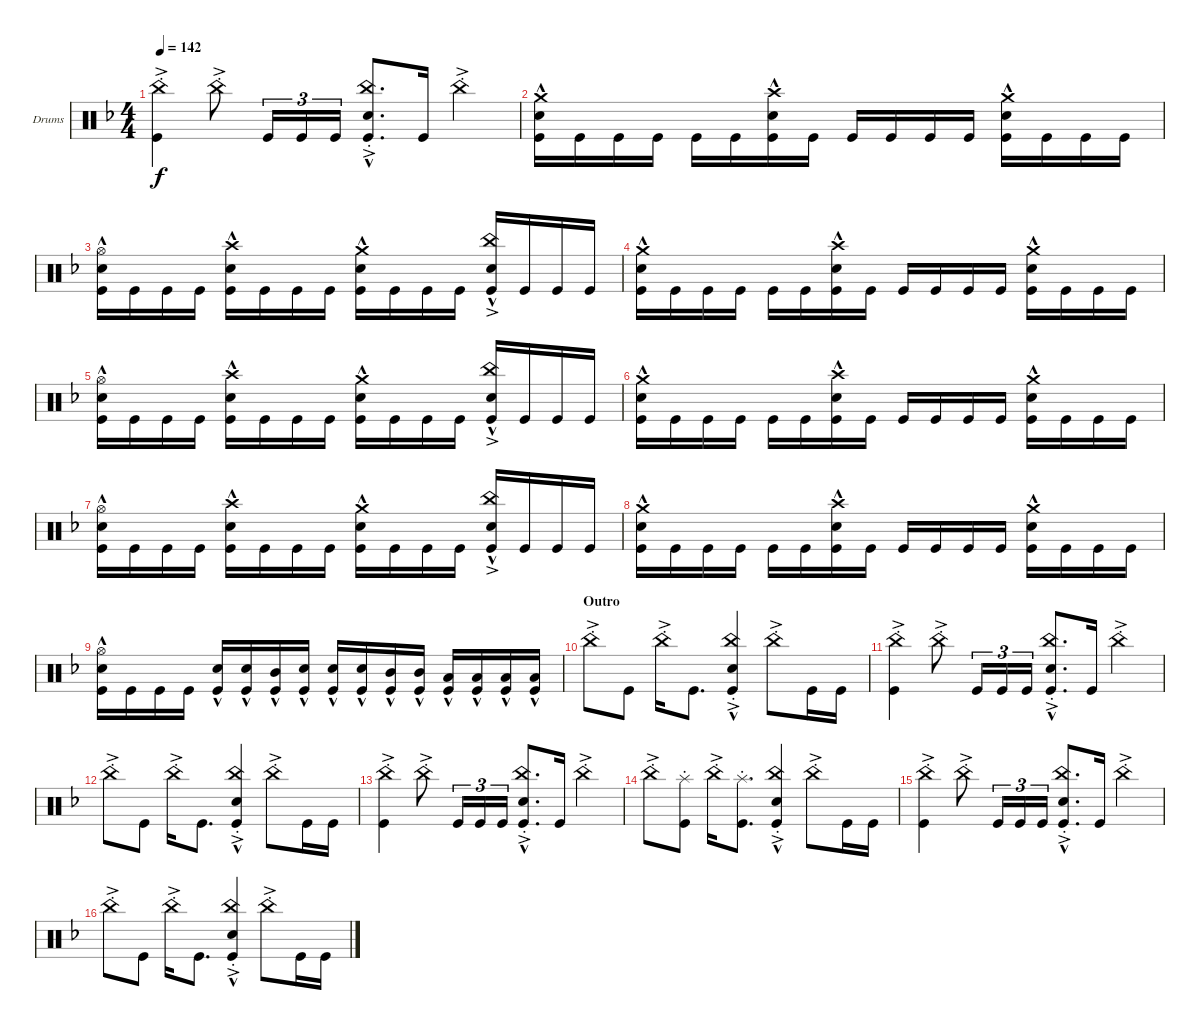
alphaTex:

\bracketExtendMode groupsimilarinstruments
\firstSystemTrackNameOrientation horizontal
\otherSystemsTrackNameOrientation horizontal
\track ("Drumkit" "Drums") {instrument percussion}
\staff {score}
\articulation defaults
\ts (4 4)
\tempo 142
\clef neutral
\scale
0.333333
\ks dminor
("Kick (hit)" "China (hit)"{ac st}).4{dy f} "China (hit)"{ac st}.8 "Kick (hit)".16{tu (3 2)} "Kick (hit)".16{tu (3 2)} "Kick (hit)".16{tu (3 2)} ("Kick (hit)" "China (hit)"{ac st} "Snare (hit) 2"{hac}).8{d} "Kick (hit)".16 "China (hit)"{ac st}.4 |
\scale
0.333333 ("Kick (hit)" "Snare (hit) 2"{hac} "Crash medium (hit)").16 "Kick (hit)".16 "Kick (hit)".16 "Kick (hit)".16 "Kick (hit)".16 "Kick (hit)".16 ("Kick (hit)" "Snare (hit) 2"{hac} "Crash high (hit)").16 "Kick (hit)".16 "Kick (hit)".16 "Kick (hit)".16 "Kick (hit)".16 "Kick (hit)".16 ("Kick (hit)" "Snare (hit) 2"{hac} "Crash medium (hit)").16 "Kick (hit)".16 "Kick (hit)".16 "Kick (hit)".16 |
\scale
0.333333 ("Kick (hit)" "Snare (hit) 2"{hac} "Hi-Hat (open)").16 "Kick (hit)".16 "Kick (hit)".16 "Kick (hit)".16 ("Kick (hit)" "Snare (hit) 2"{hac} "Crash high (hit)").16 "Kick (hit)".16 "Kick (hit)".16 "Kick (hit)".16 ("Kick (hit)" "Snare (hit) 2"{hac} "Crash medium (hit)").16 "Kick (hit)".16 "Kick (hit)".16 "Kick (hit)".16 ("Kick (hit)" "Snare (hit) 2"{hac} "China (hit)"{ac}).16 "Kick (hit)".16 "Kick (hit)".16 "Kick (hit)".16 |
\scale
0.333333 ("Kick (hit)" "Snare (hit) 2"{hac} "Crash medium (hit)").16 "Kick (hit)".16 "Kick (hit)".16 "Kick (hit)".16 "Kick (hit)".16 "Kick (hit)".16 ("Kick (hit)" "Snare (hit) 2"{hac} "Crash high (hit)").16 "Kick (hit)".16 "Kick (hit)".16 "Kick (hit)".16 "Kick (hit)".16 "Kick (hit)".16 ("Kick (hit)" "Snare (hit) 2"{hac} "Crash medium (hit)").16 "Kick (hit)".16 "Kick (hit)".16 "Kick (hit)".16 |
\scale
0.333333 ("Kick (hit)" "Snare (hit) 2"{hac} "Hi-Hat (open)").16 "Kick (hit)".16 "Kick (hit)".16 "Kick (hit)".16 ("Kick (hit)" "Snare (hit) 2"{hac} "Crash high (hit)").16 "Kick (hit)".16 "Kick (hit)".16 "Kick (hit)".16 ("Kick (hit)" "Snare (hit) 2"{hac} "Crash medium (hit)").16 "Kick (hit)".16 "Kick (hit)".16 "Kick (hit)".16 ("Kick (hit)" "Snare (hit) 2"{hac} "China (hit)"{ac}).16 "Kick (hit)".16 "Kick (hit)".16 "Kick (hit)".16 |
\scale
0.333333 ("Kick (hit)" "Snare (hit) 2"{hac} "Crash medium (hit)").16 "Kick (hit)".16 "Kick (hit)".16 "Kick (hit)".16 "Kick (hit)".16 "Kick (hit)".16 ("Kick (hit)" "Snare (hit) 2"{hac} "Crash high (hit)").16 "Kick (hit)".16 "Kick (hit)".16 "Kick (hit)".16 "Kick (hit)".16 "Kick (hit)".16 ("Kick (hit)" "Snare (hit) 2"{hac} "Crash medium (hit)").16 "Kick (hit)".16 "Kick (hit)".16 "Kick (hit)".16 |
\scale
0.333333 ("Kick (hit)" "Snare (hit) 2"{hac} "Hi-Hat (open)").16 "Kick (hit)".16 "Kick (hit)".16 "Kick (hit)".16 ("Kick (hit)" "Snare (hit) 2"{hac} "Crash high (hit)").16 "Kick (hit)".16 "Kick (hit)".16 "Kick (hit)".16 ("Kick (hit)" "Snare (hit) 2"{hac} "Crash medium (hit)").16 "Kick (hit)".16 "Kick (hit)".16 "Kick (hit)".16 ("Kick (hit)" "Snare (hit) 2"{hac} "China (hit)"{ac}).16 "Kick (hit)".16 "Kick (hit)".16 "Kick (hit)".16 |
\scale
0.333333 ("Kick (hit)" "Snare (hit) 2"{hac} "Crash medium (hit)").16 "Kick (hit)".16 "Kick (hit)".16 "Kick (hit)".16 "Kick (hit)".16 "Kick (hit)".16 ("Kick (hit)" "Snare (hit) 2"{hac} "Crash high (hit)").16 "Kick (hit)".16 "Kick (hit)".16 "Kick (hit)".16 "Kick (hit)".16 "Kick (hit)".16 ("Kick (hit)" "Snare (hit) 2"{hac} "Crash medium (hit)").16 "Kick (hit)".16 "Kick (hit)".16 "Kick (hit)".16 |
\scale
0.333333 ("Kick (hit)" "Snare (hit) 2"{hac} "Hi-Hat (open)").16 "Kick (hit)".16 "Kick (hit)".16 "Kick (hit)".16 ("Snare (hit) 2"{hac} "Kick (hit)").16 ("Snare (hit) 2"{hac} "Kick (hit)").16 ("Mid Tom (hit)"{hac} "Kick (hit)").16 ("Snare (hit) 2"{hac} "Kick (hit)").16 ("Snare (hit) 2"{hac} "Kick (hit)").16 ("Snare (hit) 2"{hac} "Kick (hit)").16 ("Mid Tom (hit)"{hac} "Kick (hit)").16 ("Mid Tom (hit)"{hac} "Kick (hit)").16 ("Low Tom (hit)"{hac} "Kick (hit)").16 ("Low Tom (hit)"{hac} "Kick (hit)").16 ("Low Tom (hit)"{hac} "Kick (hit)").16 ("Low Tom (hit)"{hac} "Kick (hit)").16 |
\section ("" "Outro")
\scale
0.333333 "China (hit)"{ac st}.8 "Kick (hit)".8 "China (hit)"{ac st}.16 "Kick (hit)".8{d} ("China (hit)"{ac st} "Kick (hit)" "Snare (hit) 2"{hac}).4 "China (hit)"{ac st}.8 "Kick (hit)".16 "Kick (hit)".16 |
\scale
0.333333 ("Kick (hit)" "China (hit)"{ac st}).4 "China (hit)"{ac st}.8 "Kick (hit)".16{tu (3 2)} "Kick (hit)".16{tu (3 2)} "Kick (hit)".16{tu (3 2)} ("Kick (hit)" "China (hit)"{ac st} "Snare (hit) 2"{hac}).8{d} "Kick (hit)".16 "China (hit)"{ac st}.4 |
\scale
0.333333 "China (hit)"{ac st}.8 "Kick (hit)".8 "China (hit)"{ac st}.16 "Kick (hit)".8{d} ("China (hit)"{ac st} "Kick (hit)" "Snare (hit) 2"{hac}).4 "China (hit)"{ac st}.8 "Kick (hit)".16 "Kick (hit)".16 |
\scale
0.333333 ("Kick (hit)" "China (hit)"{ac st}).4 "China (hit)"{ac st}.8 "Kick (hit)".16{tu (3 2)} "Kick (hit)".16{tu (3 2)} "Kick (hit)".16{tu (3 2)} ("Kick (hit)" "China (hit)"{ac st} "Snare (hit) 2"{hac}).8{d} "Kick (hit)".16 "China (hit)"{ac st}.4 |
\scale
0.333333 "China (hit)"{ac st}.8 ("Kick (hit)" "Splash (hit)"{st}).8 "China (hit)"{ac st}.16 ("Kick (hit)" "Splash (hit)"{st}).8{d} ("China (hit)"{ac st} "Kick (hit)" "Snare (hit) 2"{hac}).4 "China (hit)"{ac st}.8 "Kick (hit)".16 "Kick (hit)".16 |
\scale
0.333333 ("Kick (hit)" "China (hit)"{ac st}).4 "China (hit)"{ac st}.8 "Kick (hit)".16{tu (3 2)} "Kick (hit)".16{tu (3 2)} "Kick (hit)".16{tu (3 2)} ("Kick (hit)" "China (hit)"{ac st} "Snare (hit) 2"{hac}).8{d} "Kick (hit)".16 "China (hit)"{ac st}.4 |
\scale
0.333333 "China (hit)"{ac st}.8 "Kick (hit)".8 "China (hit)"{ac st}.16 "Kick (hit)".8{d} ("China (hit)"{ac st} "Kick (hit)" "Snare (hit) 2"{hac}).4 "China (hit)"{ac st}.8 "Kick (hit)".16 "Kick (hit)".16
